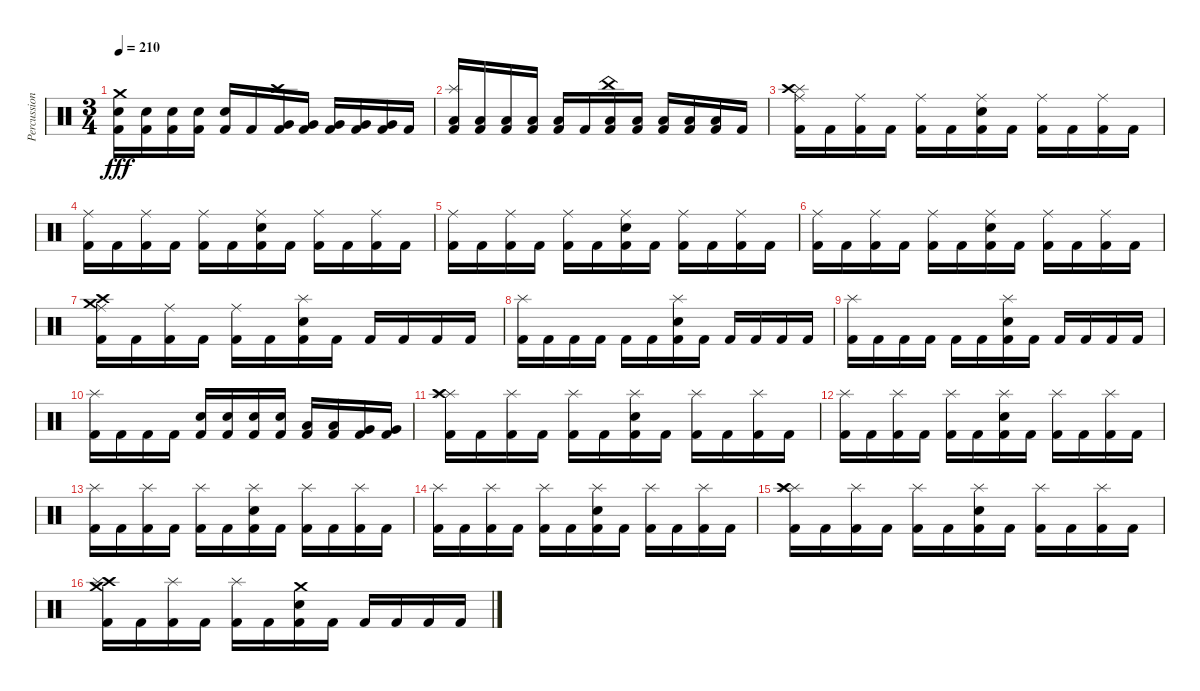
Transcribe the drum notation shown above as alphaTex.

\track ("Percussions" "Percussion") {instrument percussion}
\staff {score}
\articulation defaults
\ts (3 4)
\tempo 210
\clef neutral
\ks c
("Crash medium (hit)" "Electric Snare (hit)" "Kick (hit) 2").16{dy fff} ("Electric Snare (hit)" "Kick (hit) 2").16 ("Electric Snare (hit)" "Kick (hit) 2").16 ("Electric Snare (hit)" "Kick (hit) 2").16 ("Electric Snare (hit)" "Kick (hit) 2").16 "Kick (hit) 2".16 ("Crash high (hit)" "Very Low Tom (hit)" "Kick (hit) 2").16 ("Very Low Tom (hit)" "Kick (hit) 2").16 ("Very Low Tom (hit)" "Kick (hit) 2").16 ("Very Low Tom (hit)" "Kick (hit) 2").16 ("Very Low Tom (hit)" "Kick (hit) 2").16 "Kick (hit) 2".16 |
("Splash (hit)" "Low Tom (hit)" "Kick (hit) 2").16 ("Low Tom (hit)" "Kick (hit) 2").16 ("Low Tom (hit)" "Kick (hit) 2").16 ("Low Tom (hit)" "Kick (hit) 2").16 ("Low Tom (hit)" "Kick (hit) 2").16 "Kick (hit) 2".16 ("China (hit)" "Low Floor Tom (hit)" "Kick (hit) 2").16 ("Low Floor Tom (hit)" "Kick (hit) 2").16 ("Low Floor Tom (hit)" "Kick (hit) 2").16 ("Low Floor Tom (hit)" "Kick (hit) 2").16 ("Low Floor Tom (hit)" "Kick (hit) 2").16 "Kick (hit) 2".16 |
("Splash (hit)" "Crash high (hit)" "Ride (middle)" "Kick (hit) 2").16 "Kick (hit) 2".16 ("Ride (middle)" "Kick (hit) 2").16 "Kick (hit) 2".16 ("Ride (middle)" "Kick (hit) 2").16 "Kick (hit) 2".16 ("Electric Snare (hit)" "Ride (middle)" "Kick (hit) 2").16 "Kick (hit) 2".16 ("Ride (middle)" "Kick (hit) 2").16 "Kick (hit) 2".16 ("Ride (middle)" "Kick (hit) 2").16 "Kick (hit) 2".16 |
("Ride (middle)" "Kick (hit) 2").16 "Kick (hit) 2".16 ("Ride (middle)" "Kick (hit) 2").16 "Kick (hit) 2".16 ("Ride (middle)" "Kick (hit) 2").16 "Kick (hit) 2".16 ("Electric Snare (hit)" "Ride (middle)" "Kick (hit) 2").16 "Kick (hit) 2".16 ("Ride (middle)" "Kick (hit) 2").16 "Kick (hit) 2".16 ("Ride (middle)" "Kick (hit) 2").16 "Kick (hit) 2".16 |
("Ride (middle)" "Kick (hit) 2").16 "Kick (hit) 2".16 ("Ride (middle)" "Kick (hit) 2").16 "Kick (hit) 2".16 ("Ride (middle)" "Kick (hit) 2").16 "Kick (hit) 2".16 ("Electric Snare (hit)" "Ride (middle)" "Kick (hit) 2").16 "Kick (hit) 2".16 ("Ride (middle)" "Kick (hit) 2").16 "Kick (hit) 2".16 ("Ride (middle)" "Kick (hit) 2").16 "Kick (hit) 2".16 |
("Ride (middle)" "Kick (hit) 2").16 "Kick (hit) 2".16 ("Ride (middle)" "Kick (hit) 2").16 "Kick (hit) 2".16 ("Ride (middle)" "Kick (hit) 2").16 "Kick (hit) 2".16 ("Electric Snare (hit)" "Ride (middle)" "Kick (hit) 2").16 "Kick (hit) 2".16 ("Ride (middle)" "Kick (hit) 2").16 "Kick (hit) 2".16 ("Ride (middle)" "Kick (hit) 2").16 "Kick (hit) 2".16 |
("Crash medium (hit)" "Crash high (hit)" "Ride (middle)" "Kick (hit) 2").16 "Kick (hit) 2".16 ("Ride (middle)" "Kick (hit) 2").16 "Kick (hit) 2".16 ("Ride (middle)" "Kick (hit) 2").16 "Kick (hit) 2".16 ("Electric Snare (hit)" "Splash (hit)" "Kick (hit) 2").16 "Kick (hit) 2".16 "Kick (hit) 2".16 "Kick (hit) 2".16 "Kick (hit) 2".16 "Kick (hit) 2".16 |
("Splash (hit)" "Kick (hit) 2").16 "Kick (hit) 2".16 "Kick (hit) 2".16 "Kick (hit) 2".16 "Kick (hit) 2".16 "Kick (hit) 2".16 ("Electric Snare (hit)" "Splash (hit)" "Kick (hit) 2").16 "Kick (hit) 2".16 "Kick (hit) 2".16 "Kick (hit) 2".16 "Kick (hit) 2".16 "Kick (hit) 2".16 |
("Splash (hit)" "Kick (hit) 2").16 "Kick (hit) 2".16 "Kick (hit) 2".16 "Kick (hit) 2".16 "Kick (hit) 2".16 "Kick (hit) 2".16 ("Electric Snare (hit)" "Splash (hit)" "Kick (hit) 2").16 "Kick (hit) 2".16 "Kick (hit) 2".16 "Kick (hit) 2".16 "Kick (hit) 2".16 "Kick (hit) 2".16 |
("Splash (hit)" "Kick (hit) 2").16 "Kick (hit) 2".16 "Kick (hit) 2".16 "Kick (hit) 2".16 ("Electric Snare (hit)" "Kick (hit) 2").16 ("Electric Snare (hit)" "Kick (hit) 2").16 ("Electric Snare (hit)" "Kick (hit) 2").16 ("Electric Snare (hit)" "Kick (hit) 2").16 ("Low Floor Tom (hit)" "Kick (hit) 2").16 ("Low Floor Tom (hit)" "Kick (hit) 2").16 ("Very Low Tom (hit)" "Kick (hit) 2").16 ("Very Low Tom (hit)" "Kick (hit) 2").16 |
("Splash (hit)" "Crash high (hit)" "Splash (hit)" "Kick (hit) 2").16 "Kick (hit) 2".16 ("Splash (hit)" "Kick (hit) 2").16 "Kick (hit) 2".16 ("Splash (hit)" "Kick (hit) 2").16 "Kick (hit) 2".16 ("Electric Snare (hit)" "Splash (hit)" "Kick (hit) 2").16 "Kick (hit) 2".16 ("Splash (hit)" "Kick (hit) 2").16 "Kick (hit) 2".16 ("Splash (hit)" "Kick (hit) 2").16 "Kick (hit) 2".16 |
("Splash (hit)" "Kick (hit) 2").16 "Kick (hit) 2".16 ("Splash (hit)" "Kick (hit) 2").16 "Kick (hit) 2".16 ("Splash (hit)" "Kick (hit) 2").16 "Kick (hit) 2".16 ("Electric Snare (hit)" "Splash (hit)" "Kick (hit) 2").16 "Kick (hit) 2".16 ("Splash (hit)" "Kick (hit) 2").16 "Kick (hit) 2".16 ("Splash (hit)" "Kick (hit) 2").16 "Kick (hit) 2".16 |
("Splash (hit)" "Kick (hit) 2").16 "Kick (hit) 2".16 ("Splash (hit)" "Kick (hit) 2").16 "Kick (hit) 2".16 ("Splash (hit)" "Kick (hit) 2").16 "Kick (hit) 2".16 ("Electric Snare (hit)" "Splash (hit)" "Kick (hit) 2").16 "Kick (hit) 2".16 ("Splash (hit)" "Kick (hit) 2").16 "Kick (hit) 2".16 ("Splash (hit)" "Kick (hit) 2").16 "Kick (hit) 2".16 |
("Splash (hit)" "Kick (hit) 2").16 "Kick (hit) 2".16 ("Splash (hit)" "Kick (hit) 2").16 "Kick (hit) 2".16 ("Splash (hit)" "Kick (hit) 2").16 "Kick (hit) 2".16 ("Electric Snare (hit)" "Splash (hit)" "Kick (hit) 2").16 "Kick (hit) 2".16 ("Splash (hit)" "Kick (hit) 2").16 "Kick (hit) 2".16 ("Splash (hit)" "Kick (hit) 2").16 "Kick (hit) 2".16 |
("Splash (hit)" "Crash high (hit)" "Splash (hit)" "Kick (hit) 2").16 "Kick (hit) 2".16 ("Splash (hit)" "Kick (hit) 2").16 "Kick (hit) 2".16 ("Splash (hit)" "Kick (hit) 2").16 "Kick (hit) 2".16 ("Electric Snare (hit)" "Splash (hit)" "Kick (hit) 2").16 "Kick (hit) 2".16 ("Splash (hit)" "Kick (hit) 2").16 "Kick (hit) 2".16 ("Splash (hit)" "Kick (hit) 2").16 "Kick (hit) 2".16 |
("Crash medium (hit)" "Crash high (hit)" "Splash (hit)" "Kick (hit) 2").16 "Kick (hit) 2".16 ("Splash (hit)" "Kick (hit) 2").16 "Kick (hit) 2".16 ("Splash (hit)" "Kick (hit) 2").16 "Kick (hit) 2".16 ("Electric Snare (hit)" "Crash medium (hit)" "Kick (hit) 2").16 "Kick (hit) 2".16 "Kick (hit) 2".16 "Kick (hit) 2".16 "Kick (hit) 2".16 "Kick (hit) 2".16
